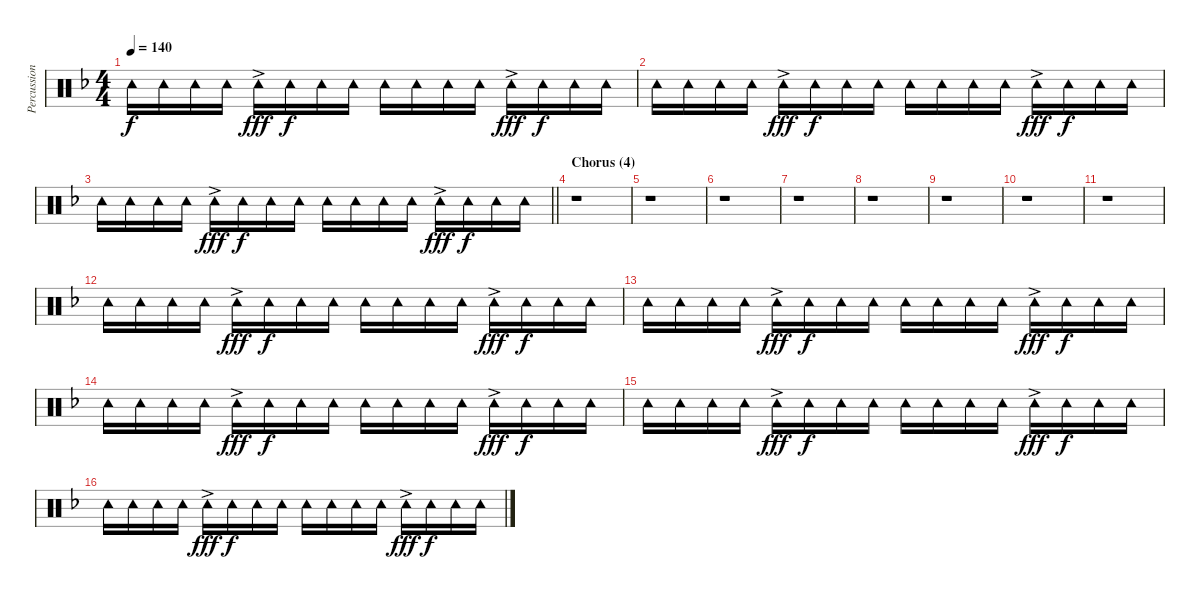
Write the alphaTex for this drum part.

\track ("Percussion" "Percussion") {instrument percussion}
\staff {score}
\articulation defaults
\ts (4 4)
\tempo 140
\clef neutral
\ks f "Tambourine (hit)".16{dy f} "Tambourine (hit)".16 "Tambourine (hit)".16 "Tambourine (hit)".16 "Tambourine (hit)"{ac}.16{dy fff} "Tambourine (hit)".16{dy f} "Tambourine (hit)".16 "Tambourine (hit)".16 "Tambourine (hit)".16 "Tambourine (hit)".16 "Tambourine (hit)".16 "Tambourine (hit)".16 "Tambourine (hit)"{ac}.16{dy fff} "Tambourine (hit)".16{dy f} "Tambourine (hit)".16 "Tambourine (hit)".16
|
"Tambourine (hit)".16 "Tambourine (hit)".16 "Tambourine (hit)".16 "Tambourine (hit)".16 "Tambourine (hit)"{ac}.16{dy fff} "Tambourine (hit)".16{dy f} "Tambourine (hit)".16 "Tambourine (hit)".16 "Tambourine (hit)".16 "Tambourine (hit)".16 "Tambourine (hit)".16 "Tambourine (hit)".16 "Tambourine (hit)"{ac}.16{dy fff} "Tambourine (hit)".16{dy f} "Tambourine (hit)".16 "Tambourine (hit)".16 |
\barLineRight lightlight "Tambourine (hit)".16 "Tambourine (hit)".16 "Tambourine (hit)".16 "Tambourine (hit)".16 "Tambourine (hit)"{ac}.16{dy fff} "Tambourine (hit)".16{dy f} "Tambourine (hit)".16 "Tambourine (hit)".16 "Tambourine (hit)".16 "Tambourine (hit)".16 "Tambourine (hit)".16 "Tambourine (hit)".16 "Tambourine (hit)"{ac}.16{dy fff} "Tambourine (hit)".16{dy f} "Tambourine (hit)".16 "Tambourine (hit)".16
|
\section ("" "Chorus (4)")
r.1 |
r.1 |
r.1 |
r.1 |
r.1 |
r.1 |
r.1 |
r.1 |
"Tambourine (hit)".16 "Tambourine (hit)".16 "Tambourine (hit)".16 "Tambourine (hit)".16 "Tambourine (hit)"{ac}.16{dy fff} "Tambourine (hit)".16{dy f} "Tambourine (hit)".16 "Tambourine (hit)".16 "Tambourine (hit)".16 "Tambourine (hit)".16 "Tambourine (hit)".16 "Tambourine (hit)".16 "Tambourine (hit)"{ac}.16{dy fff} "Tambourine (hit)".16{dy f} "Tambourine (hit)".16 "Tambourine (hit)".16 |
"Tambourine (hit)".16 "Tambourine (hit)".16 "Tambourine (hit)".16 "Tambourine (hit)".16 "Tambourine (hit)"{ac}.16{dy fff} "Tambourine (hit)".16{dy f} "Tambourine (hit)".16 "Tambourine (hit)".16 "Tambourine (hit)".16 "Tambourine (hit)".16 "Tambourine (hit)".16 "Tambourine (hit)".16 "Tambourine (hit)"{ac}.16{dy fff} "Tambourine (hit)".16{dy f} "Tambourine (hit)".16 "Tambourine (hit)".16 |
"Tambourine (hit)".16 "Tambourine (hit)".16 "Tambourine (hit)".16 "Tambourine (hit)".16 "Tambourine (hit)"{ac}.16{dy fff} "Tambourine (hit)".16{dy f} "Tambourine (hit)".16 "Tambourine (hit)".16 "Tambourine (hit)".16 "Tambourine (hit)".16 "Tambourine (hit)".16 "Tambourine (hit)".16 "Tambourine (hit)"{ac}.16{dy fff} "Tambourine (hit)".16{dy f} "Tambourine (hit)".16 "Tambourine (hit)".16 |
"Tambourine (hit)".16 "Tambourine (hit)".16 "Tambourine (hit)".16 "Tambourine (hit)".16 "Tambourine (hit)"{ac}.16{dy fff} "Tambourine (hit)".16{dy f} "Tambourine (hit)".16 "Tambourine (hit)".16 "Tambourine (hit)".16 "Tambourine (hit)".16 "Tambourine (hit)".16 "Tambourine (hit)".16 "Tambourine (hit)"{ac}.16{dy fff} "Tambourine (hit)".16{dy f} "Tambourine (hit)".16 "Tambourine (hit)".16 |
"Tambourine (hit)".16 "Tambourine (hit)".16 "Tambourine (hit)".16 "Tambourine (hit)".16 "Tambourine (hit)"{ac}.16{dy fff} "Tambourine (hit)".16{dy f} "Tambourine (hit)".16 "Tambourine (hit)".16 "Tambourine (hit)".16 "Tambourine (hit)".16 "Tambourine (hit)".16 "Tambourine (hit)".16 "Tambourine (hit)"{ac}.16{dy fff} "Tambourine (hit)".16{dy f} "Tambourine (hit)".16 "Tambourine (hit)".16
